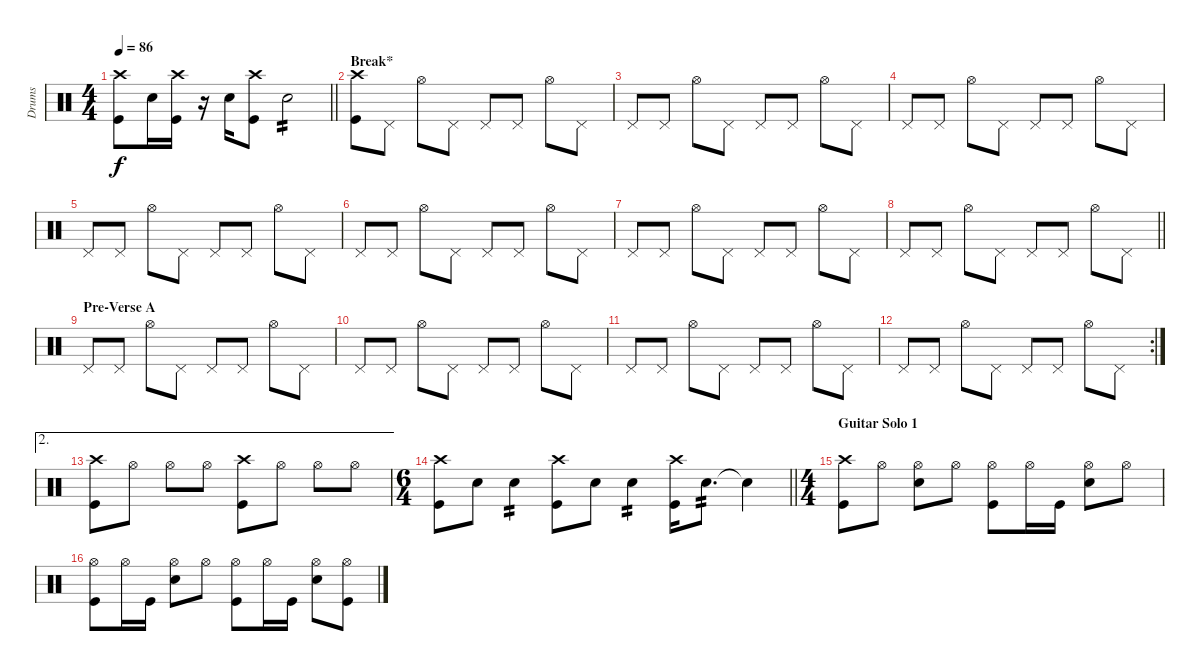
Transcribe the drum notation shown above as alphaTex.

\track ("Drums" "Drums") {instrument percussion}
\staff {score}
\articulation defaults
\ts (4 4)
\tempo 86
\clef neutral
\barLineRight lightlight
\ks c
("Crash high (hit)" "Kick (hit)").8{dy f} "Snare (hit) 2".16 ("Crash high (hit)" "Kick (hit)").16 r.16 "Snare (hit) 2".16 ("Crash high (hit)" "Kick (hit)").8 "Snare (hit) 2".2{tp 2} |
\section ("" "Break*")
("Crash high (hit)" "Kick (hit)").8 "Pedal Hi-Hat (hit)".8 "Hi-Hat (open)".8 "Pedal Hi-Hat (hit)".8 "Pedal Hi-Hat (hit)".8 "Pedal Hi-Hat (hit)".8 "Hi-Hat (open)".8 "Pedal Hi-Hat (hit)".8 |
"Pedal Hi-Hat (hit)".8 "Pedal Hi-Hat (hit)".8 "Hi-Hat (open)".8 "Pedal Hi-Hat (hit)".8 "Pedal Hi-Hat (hit)".8 "Pedal Hi-Hat (hit)".8 "Hi-Hat (open)".8 "Pedal Hi-Hat (hit)".8 |
"Pedal Hi-Hat (hit)".8 "Pedal Hi-Hat (hit)".8 "Hi-Hat (open)".8 "Pedal Hi-Hat (hit)".8 "Pedal Hi-Hat (hit)".8 "Pedal Hi-Hat (hit)".8 "Hi-Hat (open)".8 "Pedal Hi-Hat (hit)".8 |
"Pedal Hi-Hat (hit)".8 "Pedal Hi-Hat (hit)".8 "Hi-Hat (open)".8 "Pedal Hi-Hat (hit)".8 "Pedal Hi-Hat (hit)".8 "Pedal Hi-Hat (hit)".8 "Hi-Hat (open)".8 "Pedal Hi-Hat (hit)".8 |
"Pedal Hi-Hat (hit)".8 "Pedal Hi-Hat (hit)".8 "Hi-Hat (open)".8 "Pedal Hi-Hat (hit)".8 "Pedal Hi-Hat (hit)".8 "Pedal Hi-Hat (hit)".8 "Hi-Hat (open)".8 "Pedal Hi-Hat (hit)".8 |
"Pedal Hi-Hat (hit)".8 "Pedal Hi-Hat (hit)".8 "Hi-Hat (open)".8 "Pedal Hi-Hat (hit)".8 "Pedal Hi-Hat (hit)".8 "Pedal Hi-Hat (hit)".8 "Hi-Hat (open)".8 "Pedal Hi-Hat (hit)".8 |
\barLineRight lightlight "Pedal Hi-Hat (hit)".8 "Pedal Hi-Hat (hit)".8 "Hi-Hat (open)".8 "Pedal Hi-Hat (hit)".8 "Pedal Hi-Hat (hit)".8 "Pedal Hi-Hat (hit)".8 "Hi-Hat (open)".8 "Pedal Hi-Hat (hit)".8
|
\section ("" "Pre-Verse A")
"Pedal Hi-Hat (hit)".8 "Pedal Hi-Hat (hit)".8 "Hi-Hat (open)".8 "Pedal Hi-Hat (hit)".8 "Pedal Hi-Hat (hit)".8 "Pedal Hi-Hat (hit)".8 "Hi-Hat (open)".8 "Pedal Hi-Hat (hit)".8 |
"Pedal Hi-Hat (hit)".8 "Pedal Hi-Hat (hit)".8 "Hi-Hat (open)".8 "Pedal Hi-Hat (hit)".8 "Pedal Hi-Hat (hit)".8 "Pedal Hi-Hat (hit)".8 "Hi-Hat (open)".8 "Pedal Hi-Hat (hit)".8 |
"Pedal Hi-Hat (hit)".8 "Pedal Hi-Hat (hit)".8 "Hi-Hat (open)".8 "Pedal Hi-Hat (hit)".8 "Pedal Hi-Hat (hit)".8 "Pedal Hi-Hat (hit)".8 "Hi-Hat (open)".8 "Pedal Hi-Hat (hit)".8 |
\rc 2 "Pedal Hi-Hat (hit)".8 "Pedal Hi-Hat (hit)".8 "Hi-Hat (open)".8 "Pedal Hi-Hat (hit)".8 "Pedal Hi-Hat (hit)".8 "Pedal Hi-Hat (hit)".8 "Hi-Hat (open)".8 "Pedal Hi-Hat (hit)".8
|
\ae 2
("Crash high (hit)" "Kick (hit)").8 "Hi-Hat (open)".8 "Hi-Hat (open)".8 "Hi-Hat (open)".8 ("Crash high (hit)" "Kick (hit)").8 "Hi-Hat (open)".8 "Hi-Hat (open)".8 "Hi-Hat (open)".8 |
\ts (6 4)
\barLineRight lightlight
("Crash high (hit)" "Kick (hit)").8 "Snare (hit) 2".8 "Snare (hit) 2".4{tp 2} ("Crash high (hit)" "Kick (hit)").8 "Snare (hit) 2".8 "Snare (hit) 2".4{tp 2} ("Crash high (hit)" "Kick (hit)").16 "Snare (hit) 2".8{d tp 2} "Snare (hit) 2"{t}.4 |
\ts (4 4)
\section ("" "Guitar Solo 1")
("Crash high (hit)" "Kick (hit)").8 "Hi-Hat (open)".8 ("Hi-Hat (open)" "Snare (hit) 2").8 "Hi-Hat (open)".8 ("Hi-Hat (open)" "Kick (hit)").8 "Hi-Hat (open)".16 "Kick (hit)".16 ("Hi-Hat (open)" "Snare (hit) 2").8 "Hi-Hat (open)".8 |
("Hi-Hat (open)" "Kick (hit)").8 "Hi-Hat (open)".16 "Kick (hit)".16 ("Hi-Hat (open)" "Snare (hit) 2").8 "Hi-Hat (open)".8 ("Hi-Hat (open)" "Kick (hit)").8 "Hi-Hat (open)".16 "Kick (hit)".16 ("Hi-Hat (open)" "Snare (hit) 2").8 ("Hi-Hat (open)" "Kick (hit)").8
